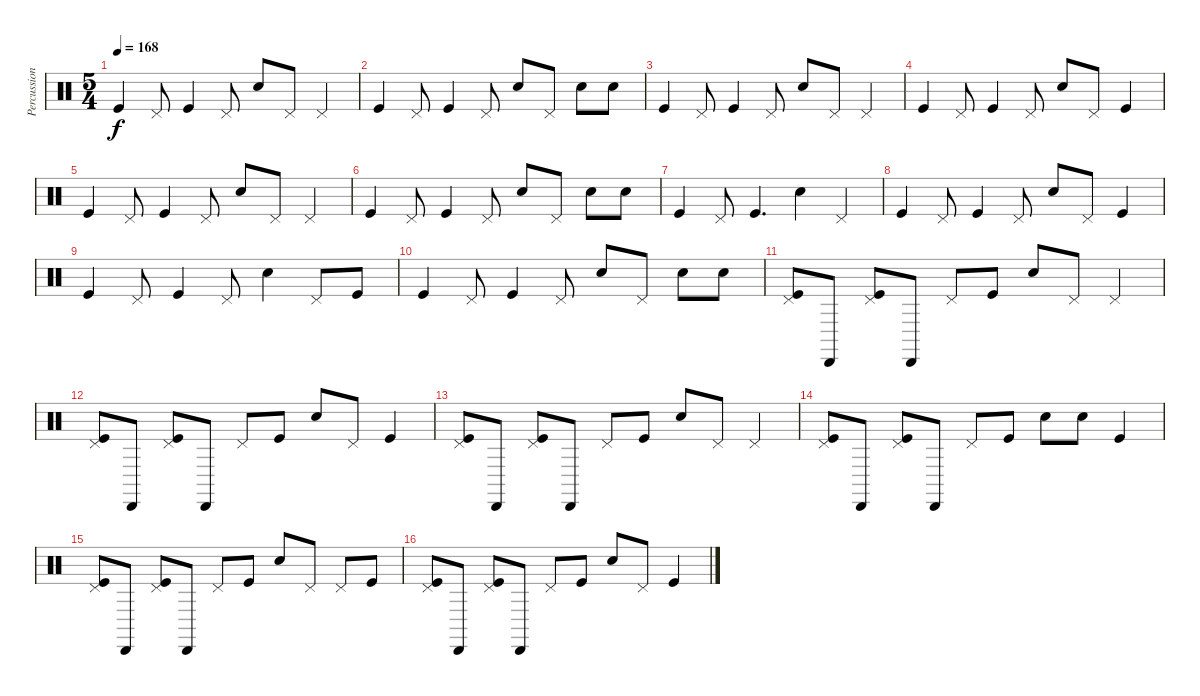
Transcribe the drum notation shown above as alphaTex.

\track ("Percussion" "Percussion") {instrument percussion}
\staff {score}
\articulation defaults
\ts (5 4)
\tempo 168
\clef neutral
\ks c "Kick (hit)".4{dy f} "Pedal Hi-Hat (hit)".8 "Kick (hit)".4 "Pedal Hi-Hat (hit)".8 "Snare (hit) 2".8 "Pedal Hi-Hat (hit)".8 "Pedal Hi-Hat (hit)".4
|
"Kick (hit)".4 "Pedal Hi-Hat (hit)".8 "Kick (hit)".4 "Pedal Hi-Hat (hit)".8 "Snare (hit) 2".8 "Pedal Hi-Hat (hit)".8 "Snare (hit) 2".8 "Snare (hit) 2".8 |
"Kick (hit)".4 "Pedal Hi-Hat (hit)".8 "Kick (hit)".4 "Pedal Hi-Hat (hit)".8 "Snare (hit) 2".8 "Pedal Hi-Hat (hit)".8 "Pedal Hi-Hat (hit)".4 |
"Kick (hit)".4 "Pedal Hi-Hat (hit)".8 "Kick (hit)".4 "Pedal Hi-Hat (hit)".8 "Snare (hit) 2".8 "Pedal Hi-Hat (hit)".8 "Kick (hit)".4 |
"Kick (hit)".4 "Pedal Hi-Hat (hit)".8 "Kick (hit)".4 "Pedal Hi-Hat (hit)".8 "Snare (hit) 2".8 "Pedal Hi-Hat (hit)".8 "Pedal Hi-Hat (hit)".4 |
"Kick (hit)".4 "Pedal Hi-Hat (hit)".8 "Kick (hit)".4 "Pedal Hi-Hat (hit)".8 "Snare (hit) 2".8 "Pedal Hi-Hat (hit)".8 "Snare (hit) 2".8 "Snare (hit) 2".8 |
"Kick (hit)".4 "Pedal Hi-Hat (hit)".8 "Kick (hit)".4{d} "Snare (hit) 2".4 "Pedal Hi-Hat (hit)".4 |
"Kick (hit)".4 "Pedal Hi-Hat (hit)".8 "Kick (hit)".4 "Pedal Hi-Hat (hit)".8 "Snare (hit) 2".8 "Pedal Hi-Hat (hit)".8 "Kick (hit)".4 |
"Kick (hit)".4 "Pedal Hi-Hat (hit)".8 "Kick (hit)".4 "Pedal Hi-Hat (hit)".8 "Snare (hit) 2".4 "Pedal Hi-Hat (hit)".8 "Kick (hit)".8 |
"Kick (hit)".4 "Pedal Hi-Hat (hit)".8 "Kick (hit)".4 "Pedal Hi-Hat (hit)".8 "Snare (hit) 2".8 "Pedal Hi-Hat (hit)".8 "Snare (hit) 2".8 "Snare (hit) 2".8 |
("Kick (hit)" "Pedal Hi-Hat (hit)").8 "Cabasa (hit)".8 ("Kick (hit)" "Pedal Hi-Hat (hit)").8 "Cabasa (hit)".8 "Pedal Hi-Hat (hit)".8 "Kick (hit)".8 "Snare (hit) 2".8 "Pedal Hi-Hat (hit)".8 "Pedal Hi-Hat (hit)".4 |
("Kick (hit)" "Pedal Hi-Hat (hit)").8 "Cabasa (hit)".8 ("Kick (hit)" "Pedal Hi-Hat (hit)").8 "Cabasa (hit)".8 "Pedal Hi-Hat (hit)".8 "Kick (hit)".8 "Snare (hit) 2".8 "Pedal Hi-Hat (hit)".8 "Kick (hit)".4 |
("Kick (hit)" "Pedal Hi-Hat (hit)").8 "Cabasa (hit)".8 ("Kick (hit)" "Pedal Hi-Hat (hit)").8 "Cabasa (hit)".8 "Pedal Hi-Hat (hit)".8 "Kick (hit)".8 "Snare (hit) 2".8 "Pedal Hi-Hat (hit)".8 "Pedal Hi-Hat (hit)".4 |
("Kick (hit)" "Pedal Hi-Hat (hit)").8 "Cabasa (hit)".8 ("Kick (hit)" "Pedal Hi-Hat (hit)").8 "Cabasa (hit)".8 "Pedal Hi-Hat (hit)".8 "Kick (hit)".8 "Snare (hit) 2".8 "Snare (hit) 2".8 "Kick (hit)".4 |
("Kick (hit)" "Pedal Hi-Hat (hit)").8 "Cabasa (hit)".8 ("Kick (hit)" "Pedal Hi-Hat (hit)").8 "Cabasa (hit)".8 "Pedal Hi-Hat (hit)".8 "Kick (hit)".8 "Snare (hit) 2".8 "Pedal Hi-Hat (hit)".8 "Pedal Hi-Hat (hit)".8 "Kick (hit)".8 |
("Kick (hit)" "Pedal Hi-Hat (hit)").8 "Cabasa (hit)".8 ("Kick (hit)" "Pedal Hi-Hat (hit)").8 "Cabasa (hit)".8 "Pedal Hi-Hat (hit)".8 "Kick (hit)".8 "Snare (hit) 2".8 "Pedal Hi-Hat (hit)".8 "Kick (hit)".4
